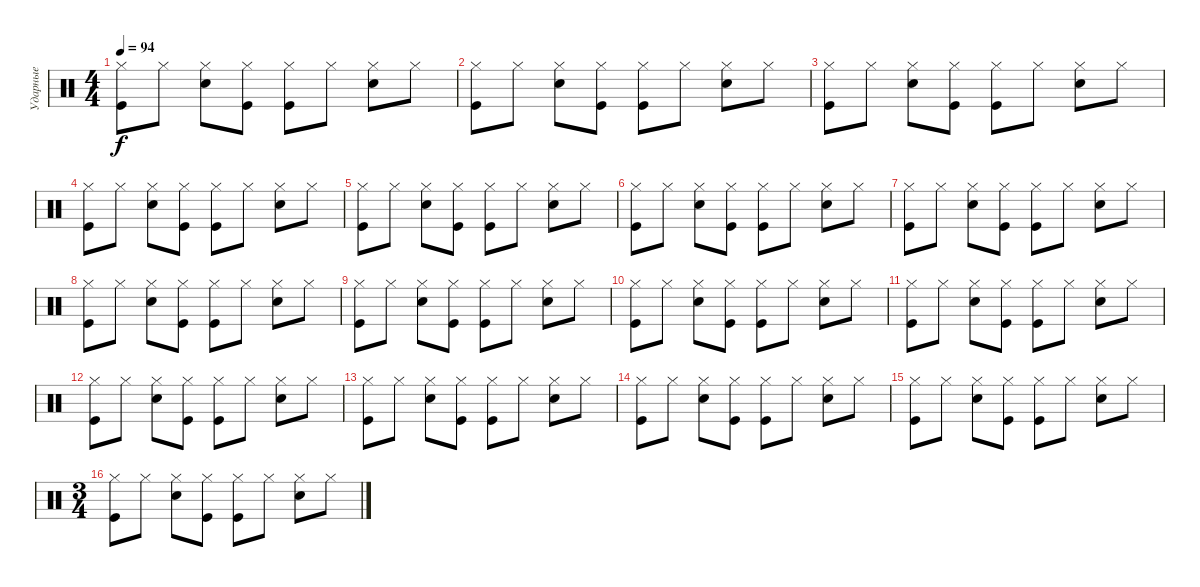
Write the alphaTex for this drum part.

\track ("Ударные" "Ударные") {instrument percussion}
\staff {score}
\articulation defaults
\ts (4 4)
\tempo 94
\clef neutral
\ks c
("Hi-Hat (closed)" "Kick (hit)").8{dy f} "Hi-Hat (closed)".8 ("Hi-Hat (closed)" "Snare (hit) 2").8 ("Kick (hit)" "Hi-Hat (closed)").8 ("Hi-Hat (closed)" "Kick (hit)").8 "Hi-Hat (closed)".8 ("Hi-Hat (closed)" "Snare (hit) 2").8 "Hi-Hat (closed)".8 |
("Hi-Hat (closed)" "Kick (hit)").8 "Hi-Hat (closed)".8 ("Hi-Hat (closed)" "Snare (hit) 2").8 ("Kick (hit)" "Hi-Hat (closed)").8 ("Hi-Hat (closed)" "Kick (hit)").8 "Hi-Hat (closed)".8 ("Hi-Hat (closed)" "Snare (hit) 2").8 "Hi-Hat (closed)".8 |
("Hi-Hat (closed)" "Kick (hit)").8 "Hi-Hat (closed)".8 ("Hi-Hat (closed)" "Snare (hit) 2").8 ("Kick (hit)" "Hi-Hat (closed)").8 ("Hi-Hat (closed)" "Kick (hit)").8 "Hi-Hat (closed)".8 ("Hi-Hat (closed)" "Snare (hit) 2").8 "Hi-Hat (closed)".8 |
("Hi-Hat (closed)" "Kick (hit)").8 "Hi-Hat (closed)".8 ("Hi-Hat (closed)" "Snare (hit) 2").8 ("Kick (hit)" "Hi-Hat (closed)").8 ("Hi-Hat (closed)" "Kick (hit)").8 "Hi-Hat (closed)".8 ("Hi-Hat (closed)" "Snare (hit) 2").8 "Hi-Hat (closed)".8 |
("Hi-Hat (closed)" "Kick (hit)").8 "Hi-Hat (closed)".8 ("Hi-Hat (closed)" "Snare (hit) 2").8 ("Kick (hit)" "Hi-Hat (closed)").8 ("Hi-Hat (closed)" "Kick (hit)").8 "Hi-Hat (closed)".8 ("Hi-Hat (closed)" "Snare (hit) 2").8 "Hi-Hat (closed)".8 |
("Hi-Hat (closed)" "Kick (hit)").8 "Hi-Hat (closed)".8 ("Hi-Hat (closed)" "Snare (hit) 2").8 ("Kick (hit)" "Hi-Hat (closed)").8 ("Hi-Hat (closed)" "Kick (hit)").8 "Hi-Hat (closed)".8 ("Hi-Hat (closed)" "Snare (hit) 2").8 "Hi-Hat (closed)".8 |
("Hi-Hat (closed)" "Kick (hit)").8 "Hi-Hat (closed)".8 ("Hi-Hat (closed)" "Snare (hit) 2").8 ("Kick (hit)" "Hi-Hat (closed)").8 ("Hi-Hat (closed)" "Kick (hit)").8 "Hi-Hat (closed)".8 ("Hi-Hat (closed)" "Snare (hit) 2").8 "Hi-Hat (closed)".8 |
("Hi-Hat (closed)" "Kick (hit)").8 "Hi-Hat (closed)".8 ("Hi-Hat (closed)" "Snare (hit) 2").8 ("Kick (hit)" "Hi-Hat (closed)").8 ("Hi-Hat (closed)" "Kick (hit)").8 "Hi-Hat (closed)".8 ("Hi-Hat (closed)" "Snare (hit) 2").8 "Hi-Hat (closed)".8 |
("Hi-Hat (closed)" "Kick (hit)").8 "Hi-Hat (closed)".8 ("Hi-Hat (closed)" "Snare (hit) 2").8 ("Kick (hit)" "Hi-Hat (closed)").8 ("Hi-Hat (closed)" "Kick (hit)").8 "Hi-Hat (closed)".8 ("Hi-Hat (closed)" "Snare (hit) 2").8 "Hi-Hat (closed)".8 |
("Hi-Hat (closed)" "Kick (hit)").8 "Hi-Hat (closed)".8 ("Hi-Hat (closed)" "Snare (hit) 2").8 ("Kick (hit)" "Hi-Hat (closed)").8 ("Hi-Hat (closed)" "Kick (hit)").8 "Hi-Hat (closed)".8 ("Hi-Hat (closed)" "Snare (hit) 2").8 "Hi-Hat (closed)".8 |
("Hi-Hat (closed)" "Kick (hit)").8 "Hi-Hat (closed)".8 ("Hi-Hat (closed)" "Snare (hit) 2").8 ("Kick (hit)" "Hi-Hat (closed)").8 ("Hi-Hat (closed)" "Kick (hit)").8 "Hi-Hat (closed)".8 ("Hi-Hat (closed)" "Snare (hit) 2").8 "Hi-Hat (closed)".8 |
("Hi-Hat (closed)" "Kick (hit)").8 "Hi-Hat (closed)".8 ("Hi-Hat (closed)" "Snare (hit) 2").8 ("Kick (hit)" "Hi-Hat (closed)").8 ("Hi-Hat (closed)" "Kick (hit)").8 "Hi-Hat (closed)".8 ("Hi-Hat (closed)" "Snare (hit) 2").8 "Hi-Hat (closed)".8 |
("Hi-Hat (closed)" "Kick (hit)").8 "Hi-Hat (closed)".8 ("Hi-Hat (closed)" "Snare (hit) 2").8 ("Kick (hit)" "Hi-Hat (closed)").8 ("Hi-Hat (closed)" "Kick (hit)").8 "Hi-Hat (closed)".8 ("Hi-Hat (closed)" "Snare (hit) 2").8 "Hi-Hat (closed)".8 |
("Hi-Hat (closed)" "Kick (hit)").8 "Hi-Hat (closed)".8 ("Hi-Hat (closed)" "Snare (hit) 2").8 ("Kick (hit)" "Hi-Hat (closed)").8 ("Hi-Hat (closed)" "Kick (hit)").8 "Hi-Hat (closed)".8 ("Hi-Hat (closed)" "Snare (hit) 2").8 "Hi-Hat (closed)".8 |
("Hi-Hat (closed)" "Kick (hit)").8 "Hi-Hat (closed)".8 ("Hi-Hat (closed)" "Snare (hit) 2").8 ("Kick (hit)" "Hi-Hat (closed)").8 ("Hi-Hat (closed)" "Kick (hit)").8 "Hi-Hat (closed)".8 ("Hi-Hat (closed)" "Snare (hit) 2").8 "Hi-Hat (closed)".8 |
\ts (3 4)
("Hi-Hat (closed)" "Kick (hit)").8 "Hi-Hat (closed)".8 ("Hi-Hat (closed)" "Snare (hit) 2").8 ("Kick (hit)" "Hi-Hat (closed)").8 ("Hi-Hat (closed)" "Kick (hit)").8 "Hi-Hat (closed)".8 ("Hi-Hat (closed)" "Snare (hit) 2").8 "Hi-Hat (closed)".8
